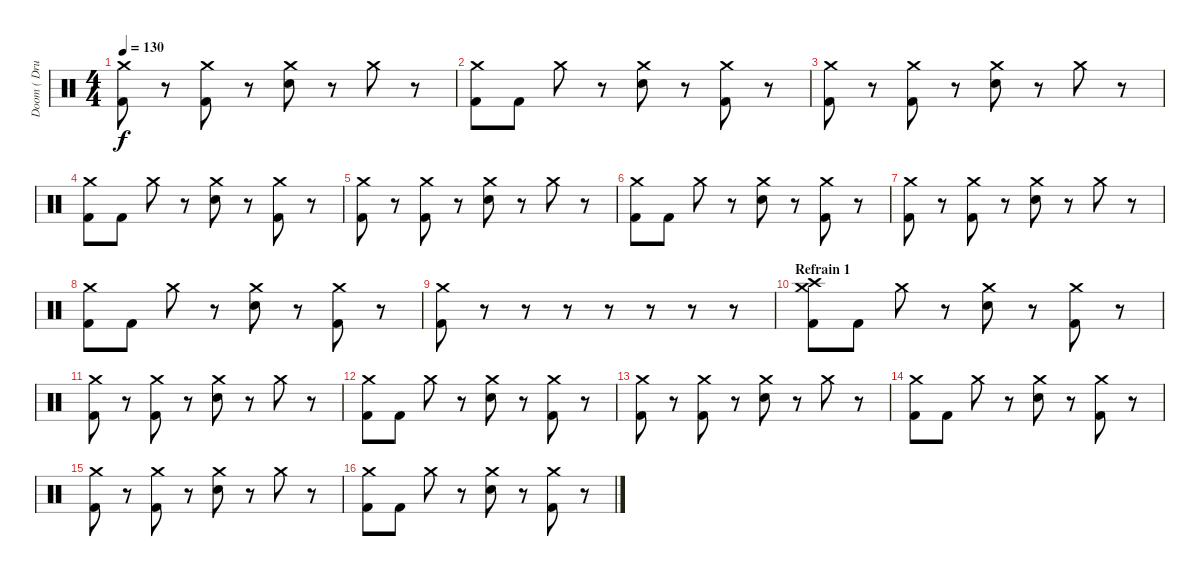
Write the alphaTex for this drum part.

\track ("Doom ( Drums )" "Doom ( Dru") {instrument percussion}
\staff {score}
\articulation defaults
\ts (4 4)
\tempo 130
\clef neutral
\ks c
("Kick (hit) 2" "Crash medium (hit)").8{dy f} r.8 ("Kick (hit) 2" "Crash medium (hit)").8 r.8 ("Electric Snare (hit)" "Crash medium (hit)").8 r.8 "Crash medium (hit)".8 r.8 |
("Kick (hit) 2" "Crash medium (hit)").8 "Kick (hit) 2".8 "Crash medium (hit)".8 r.8 ("Electric Snare (hit)" "Crash medium (hit)").8 r.8 ("Kick (hit) 2" "Crash medium (hit)").8 r.8 |
("Kick (hit) 2" "Crash medium (hit)").8 r.8 ("Kick (hit) 2" "Crash medium (hit)").8 r.8 ("Electric Snare (hit)" "Crash medium (hit)").8 r.8 "Crash medium (hit)".8 r.8 |
("Kick (hit) 2" "Crash medium (hit)").8 "Kick (hit) 2".8 "Crash medium (hit)".8 r.8 ("Electric Snare (hit)" "Crash medium (hit)").8 r.8 ("Kick (hit) 2" "Crash medium (hit)").8 r.8 |
("Kick (hit) 2" "Crash medium (hit)").8 r.8 ("Kick (hit) 2" "Crash medium (hit)").8 r.8 ("Electric Snare (hit)" "Crash medium (hit)").8 r.8 "Crash medium (hit)".8 r.8 |
("Kick (hit) 2" "Crash medium (hit)").8 "Kick (hit) 2".8 "Crash medium (hit)".8 r.8 ("Electric Snare (hit)" "Crash medium (hit)").8 r.8 ("Kick (hit) 2" "Crash medium (hit)").8 r.8 |
("Kick (hit) 2" "Crash medium (hit)").8 r.8 ("Kick (hit) 2" "Crash medium (hit)").8 r.8 ("Electric Snare (hit)" "Crash medium (hit)").8 r.8 "Crash medium (hit)".8 r.8 |
("Kick (hit) 2" "Crash medium (hit)").8 "Kick (hit) 2".8 "Crash medium (hit)".8 r.8 ("Electric Snare (hit)" "Crash medium (hit)").8 r.8 ("Kick (hit) 2" "Crash medium (hit)").8 r.8 |
("Kick (hit) 2" "Crash medium (hit)").8 r.8 r.8 r.8 r.8 r.8 r.8 r.8 |
\section ("" "Refrain 1")
("Crash high (hit)" "Kick (hit) 2" "Crash medium (hit)").8 "Kick (hit) 2".8 "Crash medium (hit)".8 r.8 ("Electric Snare (hit)" "Crash medium (hit)").8 r.8 ("Kick (hit) 2" "Crash medium (hit)").8 r.8 |
("Kick (hit) 2" "Crash medium (hit)").8 r.8 ("Kick (hit) 2" "Crash medium (hit)").8 r.8 ("Electric Snare (hit)" "Crash medium (hit)").8 r.8 "Crash medium (hit)".8 r.8 |
("Kick (hit) 2" "Crash medium (hit)").8 "Kick (hit) 2".8 "Crash medium (hit)".8 r.8 ("Electric Snare (hit)" "Crash medium (hit)").8 r.8 ("Kick (hit) 2" "Crash medium (hit)").8 r.8 |
("Kick (hit) 2" "Crash medium (hit)").8 r.8 ("Kick (hit) 2" "Crash medium (hit)").8 r.8 ("Electric Snare (hit)" "Crash medium (hit)").8 r.8 "Crash medium (hit)".8 r.8 |
("Kick (hit) 2" "Crash medium (hit)").8 "Kick (hit) 2".8 "Crash medium (hit)".8 r.8 ("Electric Snare (hit)" "Crash medium (hit)").8 r.8 ("Kick (hit) 2" "Crash medium (hit)").8 r.8 |
("Kick (hit) 2" "Crash medium (hit)").8 r.8 ("Kick (hit) 2" "Crash medium (hit)").8 r.8 ("Electric Snare (hit)" "Crash medium (hit)").8 r.8 "Crash medium (hit)".8 r.8 |
("Kick (hit) 2" "Crash medium (hit)").8 "Kick (hit) 2".8 "Crash medium (hit)".8 r.8 ("Electric Snare (hit)" "Crash medium (hit)").8 r.8 ("Kick (hit) 2" "Crash medium (hit)").8 r.8
